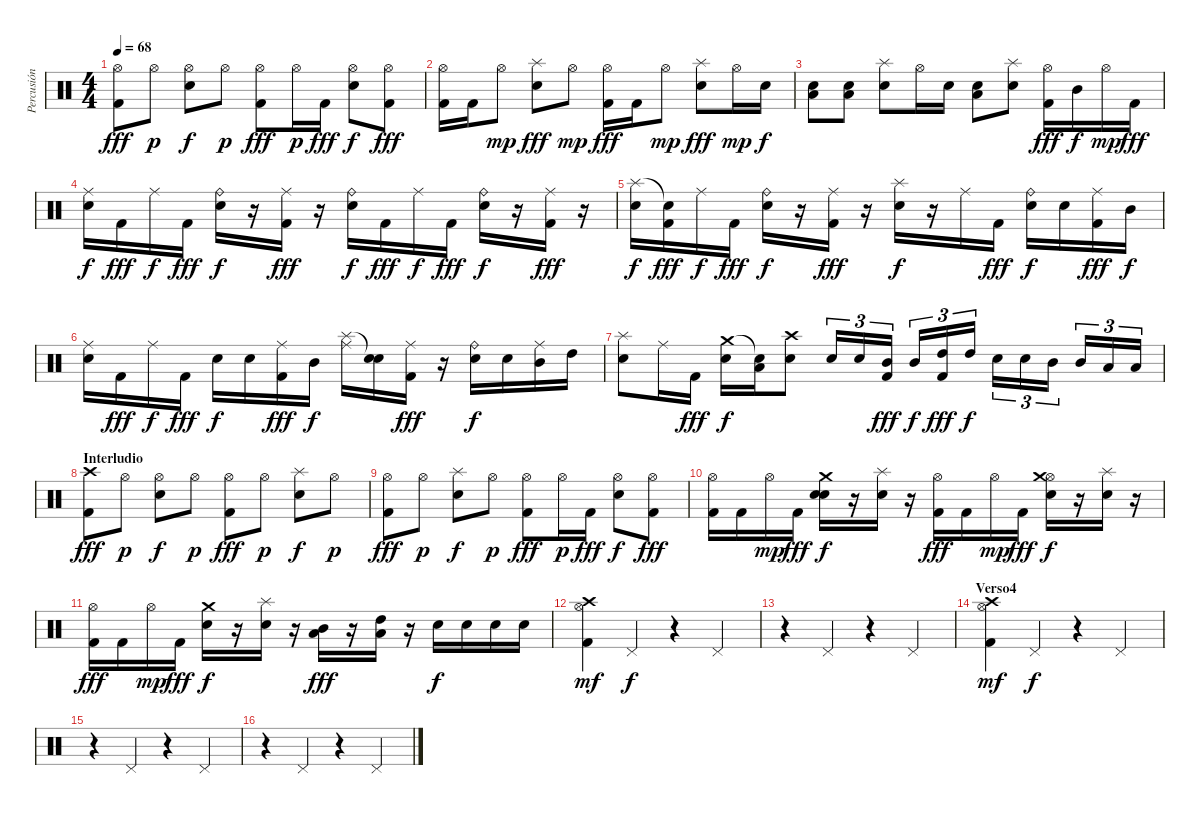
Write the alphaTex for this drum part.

\track ("Percusión" "Percusión") {instrument percussion}
\staff {score}
\articulation defaults
\ts (4 4)
\tempo 68
\clef neutral
\ks c
("Hi-Hat (open)" "Kick (hit) 2").8{dy fff} "Hi-Hat (open)".8{dy p} ("Hi-Hat (open)" "Snare (hit) 2").8{dy f} "Hi-Hat (open)".8{dy p} ("Hi-Hat (open)" "Kick (hit) 2").8{dy fff} "Hi-Hat (open)".16{dy p} "Kick (hit) 2".16{dy fff} ("Hi-Hat (open)" "Snare (hit) 2").8{dy f} ("Hi-Hat (open)" "Kick (hit) 2").8{dy fff} |
("Hi-Hat (open)" "Kick (hit) 2").16 "Kick (hit) 2".16 "Hi-Hat (open)".8{dy mp} ("Snare (hit) 2" "Splash (hit)").8{dy fff} "Hi-Hat (open)".8{dy mp} ("Hi-Hat (open)" "Kick (hit) 2").16{dy fff} "Kick (hit) 2".16 "Hi-Hat (open)".8{dy mp} ("Snare (hit) 2" "Splash (hit)").8{dy fff} "Hi-Hat (open)".16{dy mp} "Snare (hit) 2".16{dy f} |
("Snare (hit) 2" "Low Tom (hit)").8 ("Snare (hit) 2" "Low Tom (hit)").8 ("Snare (hit) 2" "Splash (hit)").8 "Hi-Hat (open)".16 "Snare (hit) 2".16 ("Snare (hit) 2" "Low Tom (hit)").8 ("Snare (hit) 2" "Splash (hit)").8 ("Hi-Hat (open)" "Kick (hit) 2").16{dy fff} "Mid Tom (hit)".16{dy f} "Hi-Hat (open)".16{dy mp} "Kick (hit) 2".16{dy fff} |
("Ride (middle)" "Snare (hit) 2").16{dy f} "Kick (hit) 2".16{dy fff} "Ride (middle)".16{dy f} "Kick (hit) 2".16{dy fff} ("Ride (bell)" "Snare (hit) 2").16{dy f} r.16 ("Ride (middle)" "Kick (hit) 2").16{dy fff} r.16 ("Ride (bell)" "Snare (hit) 2").16{dy f} "Kick (hit) 2".16{dy fff} "Ride (middle)".16{dy f} "Kick (hit) 2".16{dy fff} ("Ride (bell)" "Snare (hit) 2").16{dy f} r.16 ("Ride (middle)" "Kick (hit) 2").16{dy fff} r.16 |
("Snare (hit) 2" "Splash (hit)").16{dy f} ("Kick (hit) 2" "Snare (hit)"{t}).16{dy fff} "Ride (middle)".16{dy f} "Kick (hit) 2".16{dy fff} ("Ride (bell)" "Snare (hit) 2").16{dy f} r.16 ("Ride (middle)" "Kick (hit) 2").16{dy fff} r.16 ("Snare (hit) 2" "Splash (hit)").16{dy f} r.16 "Ride (middle)".16 "Kick (hit) 2".16{dy fff} ("Ride (bell)" "Snare (hit) 2").16{dy f} "Snare (hit) 2".16 ("Ride (middle)" "Kick (hit) 2").16{dy fff} "Mid Tom (hit)".16{dy f} |
("Ride (middle)" "Snare (hit) 2").16 "Kick (hit) 2".16{dy fff} "Ride (middle)".16{dy f} "Kick (hit) 2".16{dy fff} "Snare (hit) 2".16{dy f} "Snare (hit) 2".16 ("Ride (middle)" "Kick (hit) 2").16{dy fff} "Mid Tom (hit)".16{dy f} ("Ride (middle)" "Splash (hit)").16 ("Snare (hit) 2" "Snare (hit)"{t}).16 ("Ride (middle)" "Kick (hit) 2").16{dy fff} r.16 ("Ride (bell)" "Snare (hit) 2").16{dy f} "Snare (hit) 2".16 ("Ride (middle)" "Mid Tom (hit)").16 "High Tom (hit)".16 |
("Snare (hit) 2" "Splash (hit)").8 "Ride (middle)".16 "Kick (hit) 2".16{dy fff} ("Snare (hit) 2" "Crash medium (hit)").16{dy f} ("Low Tom (hit)" "Snare (hit)"{t}).16 ("Snare (hit) 2" "Crash high (hit)").8 "Snare (hit) 2".16{tu (3 2)} "Snare (hit) 2".16{tu (3 2)} ("Mid Tom (hit)" "Kick (hit) 2").16{tu (3 2) dy fff} "Mid Tom (hit)".16{tu (3 2) dy f} ("High Tom (hit)" "Kick (hit) 2").16{tu (3 2) dy fff} "High Tom (hit)".16{tu (3 2) dy f} "Snare (hit) 2".16{tu (3 2)} "Snare (hit) 2".16{tu (3 2)} "Mid Tom (hit)".16{tu (3 2)} "Mid Tom (hit)".16{tu (3 2)} "Low Tom (hit)".16{tu (3 2)} "Low Tom (hit)".16{tu (3 2)} |
\section ("" "Interludio")
("Kick (hit) 2" "Crash high (hit)").8{dy fff} "Hi-Hat (open)".8{dy p} ("Hi-Hat (open)" "Snare (hit) 2").8{dy f} "Hi-Hat (open)".8{dy p} ("Hi-Hat (open)" "Kick (hit) 2").8{dy fff} "Hi-Hat (open)".8{dy p} ("Snare (hit) 2" "Splash (hit)").8{dy f} "Hi-Hat (open)".8{dy p} |
("Hi-Hat (open)" "Kick (hit) 2").8{dy fff} "Hi-Hat (open)".8{dy p} ("Snare (hit) 2" "Splash (hit)").8{dy f} "Hi-Hat (open)".8{dy p} ("Hi-Hat (open)" "Kick (hit) 2").8{dy fff} "Hi-Hat (open)".16{dy p} "Kick (hit) 2".16{dy fff} ("Hi-Hat (open)" "Snare (hit) 2").8{dy f} ("Hi-Hat (open)" "Kick (hit) 2").8{dy fff} |
("Hi-Hat (open)" "Kick (hit) 2").16 "Kick (hit) 2".16 "Hi-Hat (open)".16{dy mp} "Kick (hit) 2".16{dy fff} ("Snare (hit)" "Snare (hit) 2" "Crash medium (hit)").16{dy f} r.16 ("Snare (hit) 2" "Splash (hit)").16 r.16 ("Hi-Hat (open)" "Kick (hit) 2").16{dy fff} "Kick (hit) 2".16 "Hi-Hat (open)".16{dy mp} "Kick (hit) 2".16{dy fff} ("Hi-Hat (open)" "Snare (hit) 2" "Crash medium (hit)").16{dy f} r.16 ("Snare (hit) 2" "Splash (hit)").16 r.16 |
("Hi-Hat (open)" "Kick (hit) 2").16{dy fff} "Kick (hit) 2".16 "Hi-Hat (open)".16{dy mp} "Kick (hit) 2".16{dy fff} ("Snare (hit) 2" "Crash medium (hit)").16{dy f} r.16 ("Snare (hit) 2" "Splash (hit)").16 r.16 ("Low Tom (hit)" "Mid Tom (hit)").16{dy fff} r.16 ("Low Tom (hit)" "High Tom (hit)").16 r.16 "Snare (hit) 2".16{dy f} "Snare (hit) 2".16 "Snare (hit) 2".16 "Snare (hit) 2".16 |
("Hi-Hat (open)" "Kick (hit) 2" "Crash high (hit)").4{dy mf} "Pedal Hi-Hat (hit)".4{dy f} r.4 "Pedal Hi-Hat (hit)".4 |
r.4 "Pedal Hi-Hat (hit)".4 r.4 "Pedal Hi-Hat (hit)".4 |
\section ("" "Verso4")
("Hi-Hat (open)" "Kick (hit) 2" "Crash high (hit)").4{dy mf} "Pedal Hi-Hat (hit)".4{dy f} r.4 "Pedal Hi-Hat (hit)".4 |
r.4 "Pedal Hi-Hat (hit)".4 r.4 "Pedal Hi-Hat (hit)".4 |
r.4 "Pedal Hi-Hat (hit)".4 r.4 "Pedal Hi-Hat (hit)".4
